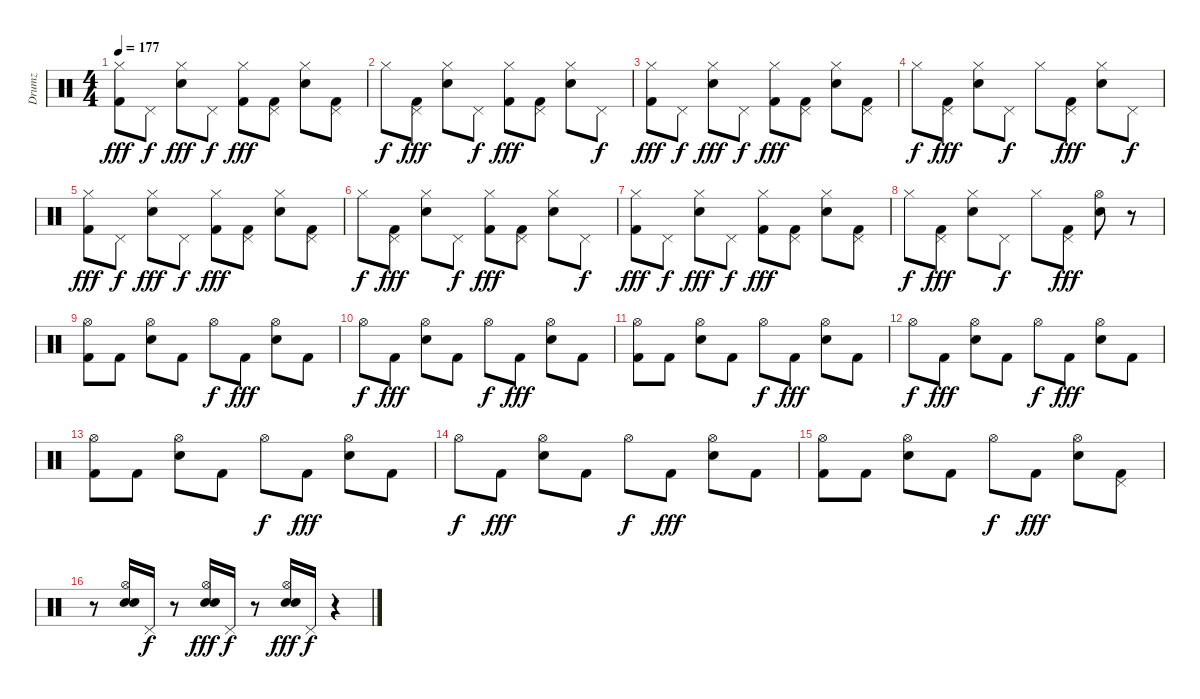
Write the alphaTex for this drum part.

\track ("Drumz" "Drumz") {instrument percussion}
\staff {score}
\articulation defaults
\ts (4 4)
\tempo 177
\clef neutral
\ks c
("Kick (hit) 2" "Hi-Hat (closed)").8{dy fff} "Pedal Hi-Hat (hit)".8{dy f} ("Snare (hit) 2" "Hi-Hat (closed)").8{dy fff} "Pedal Hi-Hat (hit)".8{dy f} ("Kick (hit) 2" "Hi-Hat (closed)").8{dy fff} ("Pedal Hi-Hat (hit)" "Kick (hit) 2").8 ("Snare (hit) 2" "Hi-Hat (closed)").8 ("Pedal Hi-Hat (hit)" "Kick (hit) 2").8 |
"Hi-Hat (closed)".8{dy f} ("Pedal Hi-Hat (hit)" "Kick (hit) 2").8{dy fff} ("Snare (hit) 2" "Hi-Hat (closed)").8 "Pedal Hi-Hat (hit)".8{dy f} ("Kick (hit) 2" "Hi-Hat (closed)").8{dy fff} ("Pedal Hi-Hat (hit)" "Kick (hit) 2").8 ("Snare (hit) 2" "Hi-Hat (closed)").8 "Pedal Hi-Hat (hit)".8{dy f} |
("Kick (hit) 2" "Hi-Hat (closed)").8{dy fff} "Pedal Hi-Hat (hit)".8{dy f} ("Snare (hit) 2" "Hi-Hat (closed)").8{dy fff} "Pedal Hi-Hat (hit)".8{dy f} ("Kick (hit) 2" "Hi-Hat (closed)").8{dy fff} ("Pedal Hi-Hat (hit)" "Kick (hit) 2").8 ("Snare (hit) 2" "Hi-Hat (closed)").8 ("Pedal Hi-Hat (hit)" "Kick (hit) 2").8 |
"Hi-Hat (closed)".8{dy f} ("Pedal Hi-Hat (hit)" "Kick (hit) 2").8{dy fff} ("Snare (hit) 2" "Hi-Hat (closed)").8 "Pedal Hi-Hat (hit)".8{dy f} "Hi-Hat (closed)".8 ("Pedal Hi-Hat (hit)" "Kick (hit) 2").8{dy fff} ("Snare (hit) 2" "Hi-Hat (closed)").8 "Pedal Hi-Hat (hit)".8{dy f} |
("Kick (hit) 2" "Hi-Hat (closed)").8{dy fff} "Pedal Hi-Hat (hit)".8{dy f} ("Snare (hit) 2" "Hi-Hat (closed)").8{dy fff} "Pedal Hi-Hat (hit)".8{dy f} ("Kick (hit) 2" "Hi-Hat (closed)").8{dy fff} ("Pedal Hi-Hat (hit)" "Kick (hit) 2").8 ("Snare (hit) 2" "Hi-Hat (closed)").8 ("Pedal Hi-Hat (hit)" "Kick (hit) 2").8 |
"Hi-Hat (closed)".8{dy f} ("Pedal Hi-Hat (hit)" "Kick (hit) 2").8{dy fff} ("Snare (hit) 2" "Hi-Hat (closed)").8 "Pedal Hi-Hat (hit)".8{dy f} ("Kick (hit) 2" "Hi-Hat (closed)").8{dy fff} ("Pedal Hi-Hat (hit)" "Kick (hit) 2").8 ("Snare (hit) 2" "Hi-Hat (closed)").8 "Pedal Hi-Hat (hit)".8{dy f} |
("Kick (hit) 2" "Hi-Hat (closed)").8{dy fff} "Pedal Hi-Hat (hit)".8{dy f} ("Snare (hit) 2" "Hi-Hat (closed)").8{dy fff} "Pedal Hi-Hat (hit)".8{dy f} ("Kick (hit) 2" "Hi-Hat (closed)").8{dy fff} ("Pedal Hi-Hat (hit)" "Kick (hit) 2").8 ("Snare (hit) 2" "Hi-Hat (closed)").8 ("Pedal Hi-Hat (hit)" "Kick (hit) 2").8 |
"Hi-Hat (closed)".8{dy f} ("Pedal Hi-Hat (hit)" "Kick (hit) 2").8{dy fff} ("Snare (hit) 2" "Hi-Hat (closed)").8 "Pedal Hi-Hat (hit)".8{dy f} "Hi-Hat (closed)".8 ("Pedal Hi-Hat (hit)" "Kick (hit) 2").8{dy fff} ("Hi-Hat (open)" "Snare (hit) 2").8 r.8 |
("Kick (hit) 2" "Hi-Hat (open)").8 "Kick (hit) 2".8 ("Snare (hit) 2" "Hi-Hat (open)").8 "Kick (hit) 2".8 "Hi-Hat (open)".8{dy f} "Kick (hit) 2".8{dy fff} ("Snare (hit) 2" "Hi-Hat (open)").8 "Kick (hit) 2".8 |
"Hi-Hat (open)".8{dy f} "Kick (hit) 2".8{dy fff} ("Snare (hit) 2" "Hi-Hat (open)").8 "Kick (hit) 2".8 "Hi-Hat (open)".8{dy f} "Kick (hit) 2".8{dy fff} ("Snare (hit) 2" "Hi-Hat (open)").8 "Kick (hit) 2".8 |
("Kick (hit) 2" "Hi-Hat (open)").8 "Kick (hit) 2".8 ("Snare (hit) 2" "Hi-Hat (open)").8 "Kick (hit) 2".8 "Hi-Hat (open)".8{dy f} "Kick (hit) 2".8{dy fff} ("Snare (hit) 2" "Hi-Hat (open)").8 "Kick (hit) 2".8 |
"Hi-Hat (open)".8{dy f} "Kick (hit) 2".8{dy fff} ("Snare (hit) 2" "Hi-Hat (open)").8 "Kick (hit) 2".8 "Hi-Hat (open)".8{dy f} "Kick (hit) 2".8{dy fff} ("Snare (hit) 2" "Hi-Hat (open)").8 "Kick (hit) 2".8 |
("Kick (hit) 2" "Hi-Hat (open)").8 "Kick (hit) 2".8 ("Snare (hit) 2" "Hi-Hat (open)").8 "Kick (hit) 2".8 "Hi-Hat (open)".8{dy f} "Kick (hit) 2".8{dy fff} ("Snare (hit) 2" "Hi-Hat (open)").8 "Kick (hit) 2".8 |
"Hi-Hat (open)".8{dy f} "Kick (hit) 2".8{dy fff} ("Snare (hit) 2" "Hi-Hat (open)").8 "Kick (hit) 2".8 "Hi-Hat (open)".8{dy f} "Kick (hit) 2".8{dy fff} ("Snare (hit) 2" "Hi-Hat (open)").8 "Kick (hit) 2".8 |
("Kick (hit) 2" "Hi-Hat (open)").8 "Kick (hit) 2".8 ("Snare (hit) 2" "Hi-Hat (open)").8 "Kick (hit) 2".8 "Hi-Hat (open)".8{dy f} "Kick (hit) 2".8{dy fff} ("Hi-Hat (open)" "Snare (hit) 2").8 ("Pedal Hi-Hat (hit)" "Kick (hit) 2").8 |
r.8 ("Snare (hit) 2" "Electric Snare (hit)" "Hi-Hat (open)").16 "Pedal Hi-Hat (hit)".16{dy f} r.8 ("Hi-Hat (open)" "Electric Snare (hit)" "Snare (hit) 2").16{dy fff} "Pedal Hi-Hat (hit)".16{dy f} r.8 ("Electric Snare (hit)" "Snare (hit) 2" "Hi-Hat (open)").16{dy fff} "Pedal Hi-Hat (hit)".16{dy f} r.4
